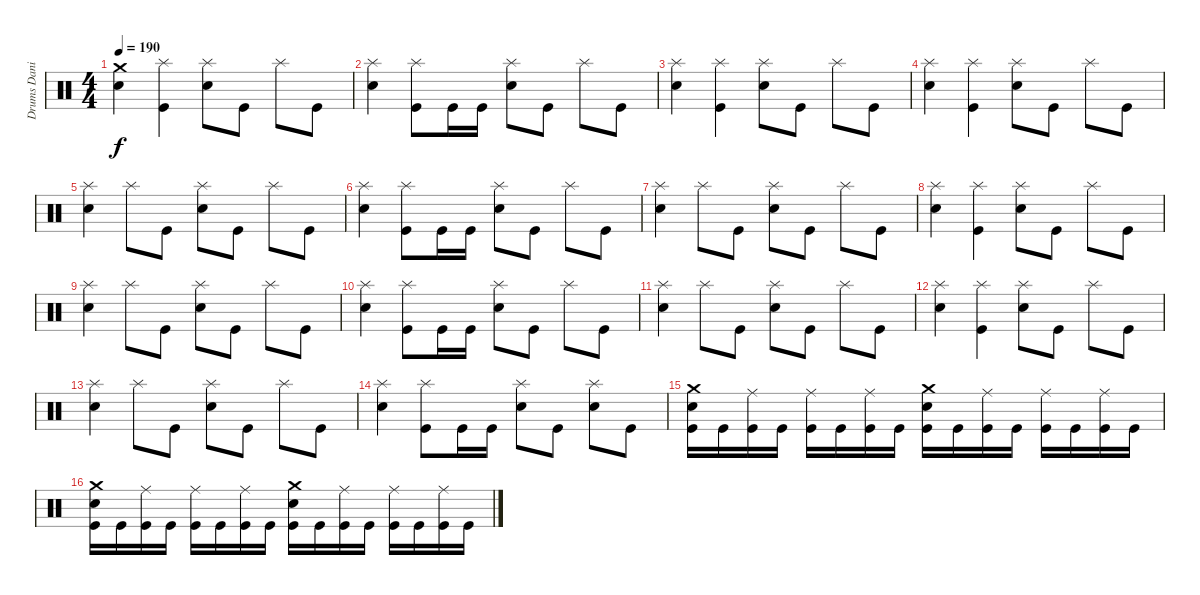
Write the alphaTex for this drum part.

\track ("Drums Daniel" "Drums Dani") {instrument percussion}
\staff {score}
\articulation defaults
\ts (4 4)
\tempo 190
\clef neutral
\ks c
("Electric Snare (hit)" "Crash medium (hit)").4{dy f} ("Kick (hit)" "Splash (hit)").4 ("Electric Snare (hit)" "Splash (hit)").8 "Kick (hit)".8 "Splash (hit)".8 "Kick (hit)".8 |
("Electric Snare (hit)" "Splash (hit)").4 ("Kick (hit)" "Splash (hit)").8 "Kick (hit)".16 "Kick (hit)".16 ("Electric Snare (hit)" "Splash (hit)").8 "Kick (hit)".8 "Splash (hit)".8 "Kick (hit)".8 |
("Electric Snare (hit)" "Splash (hit)").4 ("Kick (hit)" "Splash (hit)").4 ("Electric Snare (hit)" "Splash (hit)").8 "Kick (hit)".8 "Splash (hit)".8 "Kick (hit)".8 |
("Electric Snare (hit)" "Splash (hit)").4 ("Kick (hit)" "Splash (hit)").4 ("Electric Snare (hit)" "Splash (hit)").8 "Kick (hit)".8 "Splash (hit)".8 "Kick (hit)".8 |
("Electric Snare (hit)" "Splash (hit)").4 "Splash (hit)".8 "Kick (hit)".8 ("Electric Snare (hit)" "Splash (hit)").8 "Kick (hit)".8 "Splash (hit)".8 "Kick (hit)".8 |
("Electric Snare (hit)" "Splash (hit)").4 ("Kick (hit)" "Splash (hit)").8 "Kick (hit)".16 "Kick (hit)".16 ("Electric Snare (hit)" "Splash (hit)").8 "Kick (hit)".8 "Splash (hit)".8 "Kick (hit)".8 |
("Electric Snare (hit)" "Splash (hit)").4 "Splash (hit)".8 "Kick (hit)".8 ("Electric Snare (hit)" "Splash (hit)").8 "Kick (hit)".8 "Splash (hit)".8 "Kick (hit)".8 |
("Electric Snare (hit)" "Splash (hit)").4 ("Kick (hit)" "Splash (hit)").4 ("Electric Snare (hit)" "Splash (hit)").8 "Kick (hit)".8 "Splash (hit)".8 "Kick (hit)".8 |
("Electric Snare (hit)" "Splash (hit)").4 "Splash (hit)".8 "Kick (hit)".8 ("Electric Snare (hit)" "Splash (hit)").8 "Kick (hit)".8 "Splash (hit)".8 "Kick (hit)".8 |
("Electric Snare (hit)" "Splash (hit)").4 ("Kick (hit)" "Splash (hit)").8 "Kick (hit)".16 "Kick (hit)".16 ("Electric Snare (hit)" "Splash (hit)").8 "Kick (hit)".8 "Splash (hit)".8 "Kick (hit)".8 |
("Electric Snare (hit)" "Splash (hit)").4 "Splash (hit)".8 "Kick (hit)".8 ("Electric Snare (hit)" "Splash (hit)").8 "Kick (hit)".8 "Splash (hit)".8 "Kick (hit)".8 |
("Electric Snare (hit)" "Splash (hit)").4 ("Kick (hit)" "Splash (hit)").4 ("Electric Snare (hit)" "Splash (hit)").8 "Kick (hit)".8 "Splash (hit)".8 "Kick (hit)".8 |
("Electric Snare (hit)" "Splash (hit)").4 "Splash (hit)".8 "Kick (hit)".8 ("Electric Snare (hit)" "Splash (hit)").8 "Kick (hit)".8 "Splash (hit)".8 "Kick (hit)".8 |
("Electric Snare (hit)" "Splash (hit)").4 ("Kick (hit)" "Splash (hit)").8 "Kick (hit)".16 "Kick (hit)".16 ("Electric Snare (hit)" "Splash (hit)").8 "Kick (hit)".8 ("Electric Snare (hit)" "Splash (hit)").8 "Kick (hit)".8 |
("Kick (hit)" "Electric Snare (hit)" "Crash medium (hit)").16 "Kick (hit)".16 ("Kick (hit)" "Ride (middle)").16 "Kick (hit)".16 ("Kick (hit)" "Ride (middle)").16 "Kick (hit)".16 ("Kick (hit)" "Ride (middle)").16 "Kick (hit)".16 ("Kick (hit)" "Electric Snare (hit)" "Crash medium (hit)").16 "Kick (hit)".16 ("Kick (hit)" "Ride (middle)").16 "Kick (hit)".16 ("Kick (hit)" "Ride (middle)").16 "Kick (hit)".16 ("Kick (hit)" "Ride (middle)").16 "Kick (hit)".16 |
("Kick (hit)" "Electric Snare (hit)" "Crash medium (hit)").16 "Kick (hit)".16 ("Kick (hit)" "Ride (middle)").16 "Kick (hit)".16 ("Kick (hit)" "Ride (middle)").16 "Kick (hit)".16 ("Kick (hit)" "Ride (middle)").16 "Kick (hit)".16 ("Kick (hit)" "Electric Snare (hit)" "Crash medium (hit)").16 "Kick (hit)".16 ("Kick (hit)" "Ride (middle)").16 "Kick (hit)".16 ("Kick (hit)" "Ride (middle)").16 "Kick (hit)".16 ("Kick (hit)" "Ride (middle)").16 "Kick (hit)".16
